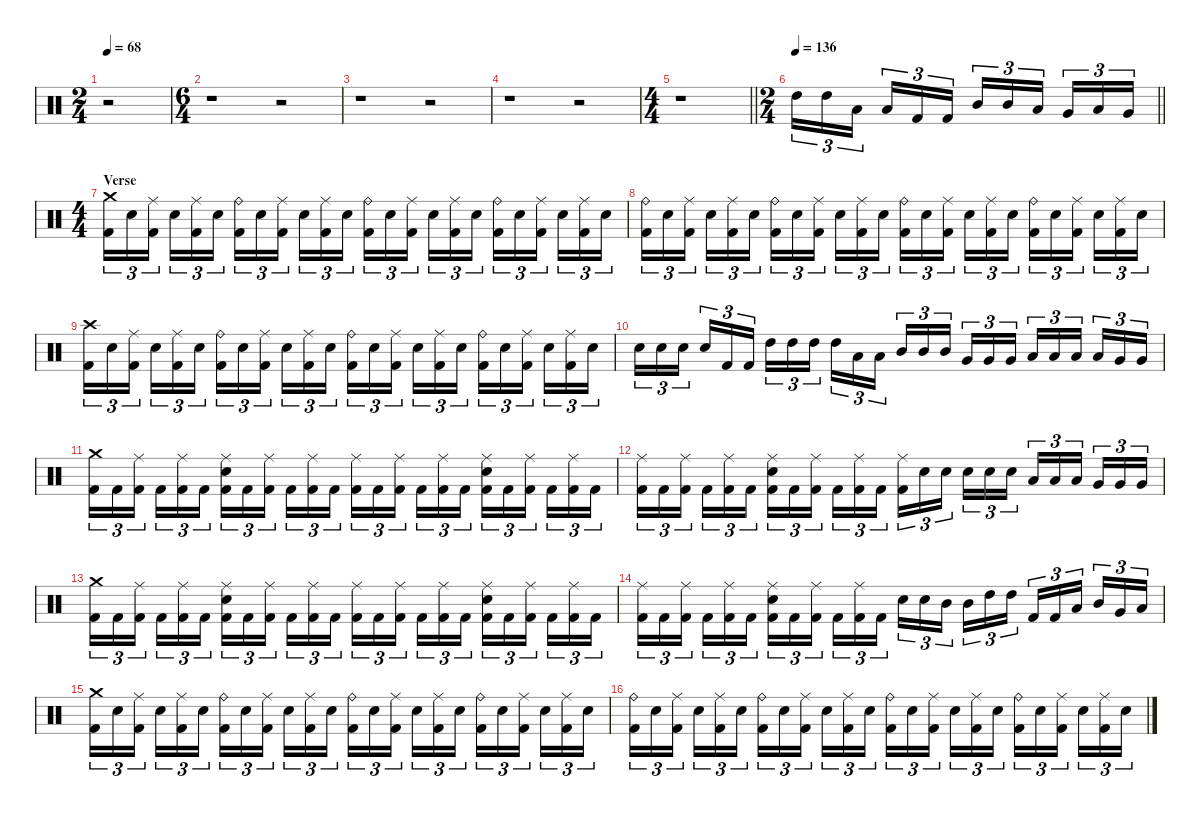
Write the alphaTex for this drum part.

\defaultSystemsLayout 4
\hideDynamics
\bracketExtendMode nobrackets
\singleTrackTrackNamePolicy hidden
\multiTrackTrackNamePolicy hidden
\firstSystemTrackNameMode fullname
\firstSystemTrackNameOrientation horizontal
\otherSystemsTrackNameOrientation horizontal
\track ("Drums" "drm.") {instrument percussion}
\staff {score}
\articulation defaults
\ts (2 4)
\beaming (8 2 2)
\tempo 68
\clef neutral
\ks c
r.2{dy f beam Down} |
\ts (6 4)
\beaming (8 6 6)
r.1{beam Down} r.2{beam Down} |
r.1{beam Down} r.2{beam Down} |
r.1{beam Down} r.2{beam Down} |
\ts (4 4)
\beaming (8 2 2 2 2)
\barLineRight lightlight
r.1{beam Down} |
\ts (2 4)
\beaming (8 2 2)
\tempo 136
\barLineRight lightlight "High Tom (hit)".16{tu (3 2) beam Down} "High Tom (hit)".16{tu (3 2) beam Down} "Low Tom (hit)".16{tu (3 2) beam Down} "Low Tom (hit)".16{tu (3 2) beam Up} "Kick (hit) 2".16{tu (3 2) beam Up} "Kick (hit) 2".16{tu (3 2) beam Up} "Mid Tom (hit)".16{tu (3 2) beam Up} "Mid Tom (hit)".16{tu (3 2) beam Up} "Low Tom (hit)".16{tu (3 2) beam Up} "Very Low Tom (hit)".16{tu (3 2) beam Up} "Low Tom (hit)".16{tu (3 2) beam Up} "Very Low Tom (hit)".16{tu (3 2) beam Up}
|
\ts (4 4)
\beaming (8 2 2 2 2)
\section ("" "Verse")
("Crash medium (hit)" "Kick (hit) 2").16{tu (3 2) beam Down} "Snare (hit) 2".16{tu (3 2) beam Down} ("Ride (middle)" "Kick (hit) 2").16{tu (3 2) beam Down} "Snare (hit) 2".16{tu (3 2) beam Down} ("Ride (middle)" "Kick (hit) 2").16{tu (3 2) beam Down} "Snare (hit) 2".16{tu (3 2) beam Down} ("Ride (bell)" "Kick (hit) 2").16{tu (3 2) beam Down} "Snare (hit) 2".16{tu (3 2) beam Down} ("Ride (middle)" "Kick (hit) 2").16{tu (3 2) beam Down} "Snare (hit) 2".16{tu (3 2) beam Down} ("Ride (middle)" "Kick (hit) 2").16{tu (3 2) beam Down} "Snare (hit) 2".16{tu (3 2) beam Down} ("Ride (bell)" "Kick (hit) 2").16{tu (3 2) beam Down} "Snare (hit) 2".16{tu (3 2) beam Down} ("Ride (middle)" "Kick (hit) 2").16{tu (3 2) beam Down} "Snare (hit) 2".16{tu (3 2) beam Down} ("Ride (middle)" "Kick (hit) 2").16{tu (3 2) beam Down} "Snare (hit) 2".16{tu (3 2) beam Down} ("Ride (bell)" "Kick (hit) 2").16{tu (3 2) beam Down} "Snare (hit) 2".16{tu (3 2) beam Down} ("Ride (middle)" "Kick (hit) 2").16{tu (3 2) beam Down} "Snare (hit) 2".16{tu (3 2) beam Down} ("Ride (middle)" "Kick (hit) 2").16{tu (3 2) beam Down} "Snare (hit) 2".16{tu (3 2) beam Down} |
("Ride (bell)" "Kick (hit) 2").16{tu (3 2) beam Down} "Snare (hit) 2".16{tu (3 2) beam Down} ("Ride (middle)" "Kick (hit) 2").16{tu (3 2) beam Down} "Snare (hit) 2".16{tu (3 2) beam Down} ("Ride (middle)" "Kick (hit) 2").16{tu (3 2) beam Down} "Snare (hit) 2".16{tu (3 2) beam Down} ("Ride (bell)" "Kick (hit) 2").16{tu (3 2) beam Down} "Snare (hit) 2".16{tu (3 2) beam Down} ("Ride (middle)" "Kick (hit) 2").16{tu (3 2) beam Down} "Snare (hit) 2".16{tu (3 2) beam Down} ("Ride (middle)" "Kick (hit) 2").16{tu (3 2) beam Down} "Snare (hit) 2".16{tu (3 2) beam Down} ("Ride (bell)" "Kick (hit) 2").16{tu (3 2) beam Down} "Snare (hit) 2".16{tu (3 2) beam Down} ("Ride (middle)" "Kick (hit) 2").16{tu (3 2) beam Down} "Snare (hit) 2".16{tu (3 2) beam Down} ("Ride (middle)" "Kick (hit) 2").16{tu (3 2) beam Down} "Snare (hit) 2".16{tu (3 2) beam Down} ("Ride (bell)" "Kick (hit) 2").16{tu (3 2) beam Down} "Snare (hit) 2".16{tu (3 2) beam Down} ("Ride (middle)" "Kick (hit) 2").16{tu (3 2) beam Down} "Snare (hit) 2".16{tu (3 2) beam Down} ("Ride (middle)" "Kick (hit) 2").16{tu (3 2) beam Down} "Snare (hit) 2".16{tu (3 2) beam Down} |
("Crash high (hit)" "Kick (hit) 2").16{tu (3 2) beam Down} "Snare (hit) 2".16{tu (3 2) beam Down} ("Ride (middle)" "Kick (hit) 2").16{tu (3 2) beam Down} "Snare (hit) 2".16{tu (3 2) beam Down} ("Ride (middle)" "Kick (hit) 2").16{tu (3 2) beam Down} "Snare (hit) 2".16{tu (3 2) beam Down} ("Ride (bell)" "Kick (hit) 2").16{tu (3 2) beam Down} "Snare (hit) 2".16{tu (3 2) beam Down} ("Ride (middle)" "Kick (hit) 2").16{tu (3 2) beam Down} "Snare (hit) 2".16{tu (3 2) beam Down} ("Ride (middle)" "Kick (hit) 2").16{tu (3 2) beam Down} "Snare (hit) 2".16{tu (3 2) beam Down} ("Ride (bell)" "Kick (hit) 2").16{tu (3 2) beam Down} "Snare (hit) 2".16{tu (3 2) beam Down} ("Ride (middle)" "Kick (hit) 2").16{tu (3 2) beam Down} "Snare (hit) 2".16{tu (3 2) beam Down} ("Ride (middle)" "Kick (hit) 2").16{tu (3 2) beam Down} "Snare (hit) 2".16{tu (3 2) beam Down} ("Ride (bell)" "Kick (hit) 2").16{tu (3 2) beam Down} "Snare (hit) 2".16{tu (3 2) beam Down} ("Ride (middle)" "Kick (hit) 2").16{tu (3 2) beam Down} "Snare (hit) 2".16{tu (3 2) beam Down} ("Ride (middle)" "Kick (hit) 2").16{tu (3 2) beam Down} "Snare (hit) 2".16{tu (3 2) beam Down} |
"Snare (hit) 2".16{tu (3 2) beam Down} "Snare (hit) 2".16{tu (3 2) beam Down} "Snare (hit) 2".16{tu (3 2) beam Down} "Snare (hit) 2".16{tu (3 2) beam Up} "Kick (hit) 2".16{tu (3 2) beam Up} "Kick (hit) 2".16{tu (3 2) beam Up} "High Tom (hit)".16{tu (3 2) beam Down} "High Tom (hit)".16{tu (3 2) beam Down} "High Tom (hit)".16{tu (3 2) beam Down} "High Tom (hit)".16{tu (3 2) beam Down} "Low Tom (hit)".16{tu (3 2) beam Down} "Low Tom (hit)".16{tu (3 2) beam Down} "Mid Tom (hit)".16{tu (3 2) beam Up} "Mid Tom (hit)".16{tu (3 2) beam Up} "Mid Tom (hit)".16{tu (3 2) beam Up} "Very Low Tom (hit)".16{tu (3 2) beam Up} "Very Low Tom (hit)".16{tu (3 2) beam Up} "Very Low Tom (hit)".16{tu (3 2) beam Up} "Low Tom (hit)".16{tu (3 2) beam Up} "Low Tom (hit)".16{tu (3 2) beam Up} "Low Tom (hit)".16{tu (3 2) beam Up} "Low Tom (hit)".16{tu (3 2) beam Up} "Very Low Tom (hit)".16{tu (3 2) beam Up} "Very Low Tom (hit)".16{tu (3 2) beam Up} |
("Crash medium (hit)" "Kick (hit) 2").16{tu (3 2) beam Down} "Kick (hit) 2".16{tu (3 2) beam Down} ("Ride (middle)" "Kick (hit) 2").16{tu (3 2) dy mp beam Down} "Kick (hit) 2".16{tu (3 2) dy f beam Down} ("Ride (middle)" "Kick (hit) 2").16{tu (3 2) beam Down} "Kick (hit) 2".16{tu (3 2) beam Down} ("Ride (middle)" "Snare (hit) 2" "Kick (hit) 2").16{tu (3 2) beam Down} "Kick (hit) 2".16{tu (3 2) beam Down} ("Ride (middle)" "Kick (hit) 2").16{tu (3 2) beam Down} "Kick (hit) 2".16{tu (3 2) beam Down} ("Ride (middle)" "Kick (hit) 2").16{tu (3 2) beam Down} "Kick (hit) 2".16{tu (3 2) beam Down} ("Ride (middle)" "Kick (hit) 2").16{tu (3 2) beam Down} "Kick (hit) 2".16{tu (3 2) beam Down} ("Ride (middle)" "Kick (hit) 2").16{tu (3 2) beam Down} "Kick (hit) 2".16{tu (3 2) beam Down} ("Ride (middle)" "Kick (hit) 2").16{tu (3 2) beam Down} "Kick (hit) 2".16{tu (3 2) beam Down} ("Ride (middle)" "Snare (hit) 2" "Kick (hit) 2").16{tu (3 2) beam Down} "Kick (hit) 2".16{tu (3 2) beam Down} ("Ride (middle)" "Kick (hit) 2").16{tu (3 2) beam Down} "Kick (hit) 2".16{tu (3 2) beam Down} ("Ride (middle)" "Kick (hit) 2").16{tu (3 2) beam Down} "Kick (hit) 2".16{tu (3 2) beam Down} |
("Ride (middle)" "Kick (hit) 2").16{tu (3 2) beam Down} "Kick (hit) 2".16{tu (3 2) beam Down} ("Ride (middle)" "Kick (hit) 2").16{tu (3 2) beam Down} "Kick (hit) 2".16{tu (3 2) beam Down} ("Ride (middle)" "Kick (hit) 2").16{tu (3 2) beam Down} "Kick (hit) 2".16{tu (3 2) beam Down} ("Ride (middle)" "Snare (hit) 2" "Kick (hit) 2").16{tu (3 2) beam Down} "Kick (hit) 2".16{tu (3 2) beam Down} ("Ride (middle)" "Kick (hit) 2").16{tu (3 2) beam Down} "Kick (hit) 2".16{tu (3 2) beam Down} ("Ride (middle)" "Kick (hit) 2").16{tu (3 2) beam Down} "Kick (hit) 2".16{tu (3 2) beam Down} ("Ride (middle)" "Kick (hit) 2").16{tu (3 2) beam Down} "Snare (hit) 2".16{tu (3 2) dy mf beam Down} "Snare (hit) 2".16{tu (3 2) dy f beam Down} "Snare (hit) 2".16{tu (3 2) beam Down} "Snare (hit) 2".16{tu (3 2) beam Down} "Snare (hit) 2".16{tu (3 2) beam Down} "Low Tom (hit)".16{tu (3 2) beam Up} "Low Tom (hit)".16{tu (3 2) beam Up} "Low Tom (hit)".16{tu (3 2) beam Up} "Very Low Tom (hit)".16{tu (3 2) beam Up} "Very Low Tom (hit)".16{tu (3 2) beam Up} "Very Low Tom (hit)".16{tu (3 2) beam Up} |
("Crash medium (hit)" "Kick (hit) 2").16{tu (3 2) beam Down} "Kick (hit) 2".16{tu (3 2) beam Down} ("Ride (middle)" "Kick (hit) 2").16{tu (3 2) dy mp beam Down} "Kick (hit) 2".16{tu (3 2) dy f beam Down} ("Ride (middle)" "Kick (hit) 2").16{tu (3 2) beam Down} "Kick (hit) 2".16{tu (3 2) beam Down} ("Ride (middle)" "Snare (hit) 2" "Kick (hit) 2").16{tu (3 2) beam Down} "Kick (hit) 2".16{tu (3 2) beam Down} ("Ride (middle)" "Kick (hit) 2").16{tu (3 2) beam Down} "Kick (hit) 2".16{tu (3 2) beam Down} ("Ride (middle)" "Kick (hit) 2").16{tu (3 2) beam Down} "Kick (hit) 2".16{tu (3 2) beam Down} ("Ride (middle)" "Kick (hit) 2").16{tu (3 2) beam Down} "Kick (hit) 2".16{tu (3 2) beam Down} ("Ride (middle)" "Kick (hit) 2").16{tu (3 2) beam Down} "Kick (hit) 2".16{tu (3 2) beam Down} ("Ride (middle)" "Kick (hit) 2").16{tu (3 2) beam Down} "Kick (hit) 2".16{tu (3 2) beam Down} ("Ride (middle)" "Snare (hit) 2" "Kick (hit) 2").16{tu (3 2) beam Down} "Kick (hit) 2".16{tu (3 2) beam Down} ("Ride (middle)" "Kick (hit) 2").16{tu (3 2) beam Down} "Kick (hit) 2".16{tu (3 2) beam Down} ("Ride (middle)" "Kick (hit) 2").16{tu (3 2) beam Down} "Kick (hit) 2".16{tu (3 2) beam Down} |
("Ride (middle)" "Kick (hit) 2").16{tu (3 2) beam Down} "Kick (hit) 2".16{tu (3 2) beam Down} ("Ride (middle)" "Kick (hit) 2").16{tu (3 2) beam Down} "Kick (hit) 2".16{tu (3 2) beam Down} ("Ride (middle)" "Kick (hit) 2").16{tu (3 2) beam Down} "Kick (hit) 2".16{tu (3 2) beam Down} ("Ride (middle)" "Snare (hit) 2" "Kick (hit) 2").16{tu (3 2) beam Down} "Kick (hit) 2".16{tu (3 2) beam Down} ("Ride (middle)" "Kick (hit) 2").16{tu (3 2) beam Down} "Kick (hit) 2".16{tu (3 2) beam Down} ("Ride (middle)" "Kick (hit) 2").16{tu (3 2) beam Down} "Kick (hit) 2".16{tu (3 2) beam Down} "Snare (hit) 2".16{tu (3 2) beam Down} "Snare (hit) 2".16{tu (3 2) beam Down} "Mid Tom (hit)".16{tu (3 2) beam Down} "Mid Tom (hit)".16{tu (3 2) beam Down} "High Tom (hit)".16{tu (3 2) beam Down} "High Tom (hit)".16{tu (3 2) beam Down} "Kick (hit) 2".16{tu (3 2) beam Up} "Kick (hit) 2".16{tu (3 2) beam Up} "Low Tom (hit)".16{tu (3 2) beam Up} "Mid Tom (hit)".16{tu (3 2) beam Up} "Very Low Tom (hit)".16{tu (3 2) beam Up} "Low Floor Tom (hit)".16{tu (3 2) beam Up} |
("Crash medium (hit)" "Kick (hit) 2").16{tu (3 2) beam Down} "Snare (hit) 2".16{tu (3 2) beam Down} ("Ride (middle)" "Kick (hit) 2").16{tu (3 2) beam Down} "Snare (hit) 2".16{tu (3 2) beam Down} ("Ride (middle)" "Kick (hit) 2").16{tu (3 2) beam Down} "Snare (hit) 2".16{tu (3 2) beam Down} ("Ride (bell)" "Kick (hit) 2").16{tu (3 2) beam Down} "Snare (hit) 2".16{tu (3 2) beam Down} ("Ride (middle)" "Kick (hit) 2").16{tu (3 2) beam Down} "Snare (hit) 2".16{tu (3 2) beam Down} ("Ride (middle)" "Kick (hit) 2").16{tu (3 2) beam Down} "Snare (hit) 2".16{tu (3 2) beam Down} ("Ride (bell)" "Kick (hit) 2").16{tu (3 2) beam Down} "Snare (hit) 2".16{tu (3 2) beam Down} ("Ride (middle)" "Kick (hit) 2").16{tu (3 2) beam Down} "Snare (hit) 2".16{tu (3 2) beam Down} ("Ride (middle)" "Kick (hit) 2").16{tu (3 2) beam Down} "Snare (hit) 2".16{tu (3 2) beam Down} ("Ride (bell)" "Kick (hit) 2").16{tu (3 2) beam Down} "Snare (hit) 2".16{tu (3 2) beam Down} ("Ride (middle)" "Kick (hit) 2").16{tu (3 2) beam Down} "Snare (hit) 2".16{tu (3 2) beam Down} ("Ride (middle)" "Kick (hit) 2").16{tu (3 2) beam Down} "Snare (hit) 2".16{tu (3 2) beam Down} |
("Ride (bell)" "Kick (hit) 2").16{tu (3 2) beam Down} "Snare (hit) 2".16{tu (3 2) beam Down} ("Ride (middle)" "Kick (hit) 2").16{tu (3 2) beam Down} "Snare (hit) 2".16{tu (3 2) beam Down} ("Ride (middle)" "Kick (hit) 2").16{tu (3 2) beam Down} "Snare (hit) 2".16{tu (3 2) beam Down} ("Ride (bell)" "Kick (hit) 2").16{tu (3 2) beam Down} "Snare (hit) 2".16{tu (3 2) beam Down} ("Ride (middle)" "Kick (hit) 2").16{tu (3 2) beam Down} "Snare (hit) 2".16{tu (3 2) beam Down} ("Ride (middle)" "Kick (hit) 2").16{tu (3 2) beam Down} "Snare (hit) 2".16{tu (3 2) beam Down} ("Ride (bell)" "Kick (hit) 2").16{tu (3 2) beam Down} "Snare (hit) 2".16{tu (3 2) beam Down} ("Ride (middle)" "Kick (hit) 2").16{tu (3 2) beam Down} "Snare (hit) 2".16{tu (3 2) beam Down} ("Ride (middle)" "Kick (hit) 2").16{tu (3 2) beam Down} "Snare (hit) 2".16{tu (3 2) beam Down} ("Ride (bell)" "Kick (hit) 2").16{tu (3 2) beam Down} "Snare (hit) 2".16{tu (3 2) beam Down} ("Ride (middle)" "Kick (hit) 2").16{tu (3 2) beam Down} "Snare (hit) 2".16{tu (3 2) beam Down} ("Ride (middle)" "Kick (hit) 2").16{tu (3 2) beam Down} "Snare (hit) 2".16{tu (3 2) beam Down}
